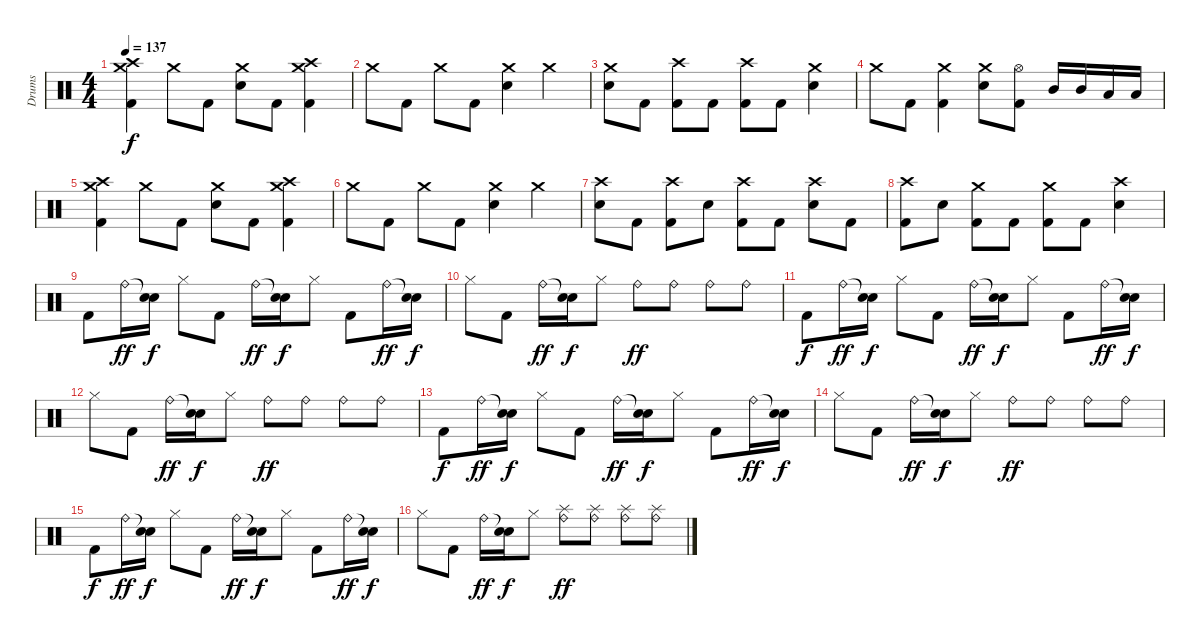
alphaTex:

\track ("Drums" "Drums") {instrument percussion}
\staff {score}
\articulation defaults
\ts (4 4)
\tempo 137
\clef neutral
\ks c
("Crash medium (hit)" "Crash high (hit)" "Kick (hit) 2").4{dy f} "Crash medium (hit)".8 "Kick (hit) 2".8 ("Crash medium (hit)" "Electric Snare (hit)").8 "Kick (hit) 2".8 ("Crash medium (hit)" "Crash high (hit)" "Kick (hit) 2").4 |
"Crash medium (hit)".8 "Kick (hit) 2".8 "Crash medium (hit)".8 "Kick (hit) 2".8 ("Crash medium (hit)" "Electric Snare (hit)").4 "Crash medium (hit)".4 |
("Crash medium (hit)" "Electric Snare (hit)").8 "Kick (hit) 2".8 ("Crash high (hit)" "Kick (hit) 2").8 "Kick (hit) 2".8 ("Crash high (hit)" "Kick (hit) 2").8 "Kick (hit) 2".8 ("Crash medium (hit)" "Electric Snare (hit)").4 |
"Crash medium (hit)".8 "Kick (hit) 2".8 ("Crash medium (hit)" "Kick (hit) 2").4 ("Crash medium (hit)" "Electric Snare (hit)").8 ("Hi-Hat (open)" "Kick (hit) 2").8 "Mid Tom (hit)".16 "Mid Tom (hit)".16 "Low Tom (hit)".16 "Low Tom (hit)".16 |
("Crash medium (hit)" "Crash high (hit)" "Kick (hit) 2").4 "Crash medium (hit)".8 "Kick (hit) 2".8 ("Crash medium (hit)" "Electric Snare (hit)").8 "Kick (hit) 2".8 ("Crash medium (hit)" "Crash high (hit)" "Kick (hit) 2").4 |
"Crash medium (hit)".8 "Kick (hit) 2".8 "Crash medium (hit)".8 "Kick (hit) 2".8 ("Crash medium (hit)" "Electric Snare (hit)").4 "Crash medium (hit)".4 |
("Crash high (hit)" "Electric Snare (hit)").8 "Kick (hit) 2".8 ("Crash high (hit)" "Kick (hit) 2").8 "Electric Snare (hit)".8 ("Crash high (hit)" "Kick (hit) 2").8 "Kick (hit) 2".8 ("Crash high (hit)" "Electric Snare (hit)").8 "Kick (hit) 2".8 |
("Crash high (hit)" "Kick (hit) 2").8 "Electric Snare (hit)".8 ("Crash medium (hit)" "Kick (hit) 2").8 "Kick (hit) 2".8 ("Crash medium (hit)" "Kick (hit) 2").8 "Kick (hit) 2".8 ("Crash high (hit)" "Electric Snare (hit)").4 |
"Kick (hit) 2".8 "Ride (bell)".16{dy ff} ("Snare (hit)"{t} "Electric Snare (hit)").16{dy f} "Hi-Hat (closed)".8 "Kick (hit) 2".8 "Ride (bell)".16{dy ff} ("Snare (hit)"{t} "Electric Snare (hit)").16{dy f} "Hi-Hat (closed)".8 "Kick (hit) 2".8 "Ride (bell)".16{dy ff} ("Snare (hit)"{t} "Electric Snare (hit)").16{dy f} |
"Hi-Hat (closed)".8 "Kick (hit) 2".8 "Ride (bell)".16{dy ff} ("Snare (hit)"{t} "Electric Snare (hit)").16{dy f} "Hi-Hat (closed)".8 "Ride (bell)".8{dy ff} "Ride (bell)".8 "Ride (bell)".8 "Ride (bell)".8 |
"Kick (hit) 2".8{dy f} "Ride (bell)".16{dy ff} ("Snare (hit)"{t} "Electric Snare (hit)").16{dy f} "Hi-Hat (closed)".8 "Kick (hit) 2".8 "Ride (bell)".16{dy ff} ("Snare (hit)"{t} "Electric Snare (hit)").16{dy f} "Hi-Hat (closed)".8 "Kick (hit) 2".8 "Ride (bell)".16{dy ff} ("Snare (hit)"{t} "Electric Snare (hit)").16{dy f} |
"Hi-Hat (closed)".8 "Kick (hit) 2".8 "Ride (bell)".16{dy ff} ("Snare (hit)"{t} "Electric Snare (hit)").16{dy f} "Hi-Hat (closed)".8 "Ride (bell)".8{dy ff} "Ride (bell)".8 "Ride (bell)".8 "Ride (bell)".8 |
"Kick (hit) 2".8{dy f} "Ride (bell)".16{dy ff} ("Snare (hit)"{t} "Electric Snare (hit)").16{dy f} "Hi-Hat (closed)".8 "Kick (hit) 2".8 "Ride (bell)".16{dy ff} ("Snare (hit)"{t} "Electric Snare (hit)").16{dy f} "Hi-Hat (closed)".8 "Kick (hit) 2".8 "Ride (bell)".16{dy ff} ("Snare (hit)"{t} "Electric Snare (hit)").16{dy f} |
"Hi-Hat (closed)".8 "Kick (hit) 2".8 "Ride (bell)".16{dy ff} ("Snare (hit)"{t} "Electric Snare (hit)").16{dy f} "Hi-Hat (closed)".8 "Ride (bell)".8{dy ff} "Ride (bell)".8 "Ride (bell)".8 "Ride (bell)".8 |
"Kick (hit) 2".8{dy f} "Ride (bell)".16{dy ff} ("Snare (hit)"{t} "Electric Snare (hit)").16{dy f} "Hi-Hat (closed)".8 "Kick (hit) 2".8 "Ride (bell)".16{dy ff} ("Snare (hit)"{t} "Electric Snare (hit)").16{dy f} "Hi-Hat (closed)".8 "Kick (hit) 2".8 "Ride (bell)".16{dy ff} ("Snare (hit)"{t} "Electric Snare (hit)").16{dy f} |
"Hi-Hat (closed)".8 "Kick (hit) 2".8 "Ride (bell)".16{dy ff} ("Snare (hit)"{t} "Electric Snare (hit)").16{dy f} "Hi-Hat (closed)".8 ("Splash (hit)" "Ride (bell)").8{dy ff} ("Splash (hit)" "Ride (bell)").8 ("Splash (hit)" "Ride (bell)").8 ("Splash (hit)" "Ride (bell)").8
